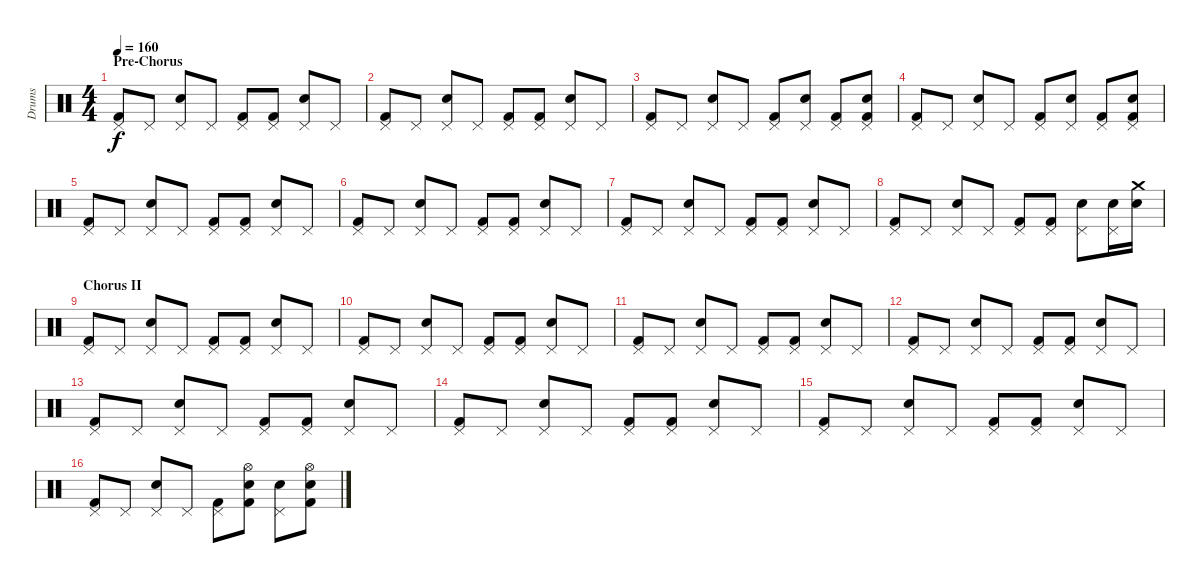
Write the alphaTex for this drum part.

\track ("Drums" "Drums") {instrument percussion}
\staff {score}
\articulation defaults
\ts (4 4)
\section ("" "Pre-Chorus")
\tempo 160
\clef neutral
\ks c
("Kick (hit) 2" "Pedal Hi-Hat (hit)").8{dy f} "Pedal Hi-Hat (hit)".8 ("Electric Snare (hit)" "Pedal Hi-Hat (hit)").8 "Pedal Hi-Hat (hit)".8 ("Kick (hit) 2" "Pedal Hi-Hat (hit)").8 ("Kick (hit) 2" "Pedal Hi-Hat (hit)").8 ("Electric Snare (hit)" "Pedal Hi-Hat (hit)").8 "Pedal Hi-Hat (hit)".8 |
("Kick (hit) 2" "Pedal Hi-Hat (hit)").8 "Pedal Hi-Hat (hit)".8 ("Electric Snare (hit)" "Pedal Hi-Hat (hit)").8 "Pedal Hi-Hat (hit)".8 ("Kick (hit) 2" "Pedal Hi-Hat (hit)").8 ("Kick (hit) 2" "Pedal Hi-Hat (hit)").8 ("Electric Snare (hit)" "Pedal Hi-Hat (hit)").8 "Pedal Hi-Hat (hit)".8 |
("Kick (hit) 2" "Pedal Hi-Hat (hit)").8 "Pedal Hi-Hat (hit)".8 ("Electric Snare (hit)" "Pedal Hi-Hat (hit)").8 "Pedal Hi-Hat (hit)".8 ("Kick (hit) 2" "Pedal Hi-Hat (hit)").8 ("Pedal Hi-Hat (hit)" "Electric Snare (hit)").8 ("Kick (hit) 2" "Pedal Hi-Hat (hit)").8 ("Kick (hit) 2" "Pedal Hi-Hat (hit)" "Electric Snare (hit)").8 |
("Kick (hit) 2" "Pedal Hi-Hat (hit)").8 "Pedal Hi-Hat (hit)".8 ("Electric Snare (hit)" "Pedal Hi-Hat (hit)").8 "Pedal Hi-Hat (hit)".8 ("Kick (hit) 2" "Pedal Hi-Hat (hit)").8 ("Pedal Hi-Hat (hit)" "Electric Snare (hit)").8 ("Kick (hit) 2" "Pedal Hi-Hat (hit)").8 ("Kick (hit) 2" "Pedal Hi-Hat (hit)" "Electric Snare (hit)").8 |
("Kick (hit) 2" "Pedal Hi-Hat (hit)").8 "Pedal Hi-Hat (hit)".8 ("Electric Snare (hit)" "Pedal Hi-Hat (hit)").8 "Pedal Hi-Hat (hit)".8 ("Kick (hit) 2" "Pedal Hi-Hat (hit)").8 ("Kick (hit) 2" "Pedal Hi-Hat (hit)").8 ("Electric Snare (hit)" "Pedal Hi-Hat (hit)").8 "Pedal Hi-Hat (hit)".8 |
("Kick (hit) 2" "Pedal Hi-Hat (hit)").8 "Pedal Hi-Hat (hit)".8 ("Electric Snare (hit)" "Pedal Hi-Hat (hit)").8 "Pedal Hi-Hat (hit)".8 ("Kick (hit) 2" "Pedal Hi-Hat (hit)").8 ("Kick (hit) 2" "Pedal Hi-Hat (hit)").8 ("Electric Snare (hit)" "Pedal Hi-Hat (hit)").8 "Pedal Hi-Hat (hit)".8 |
("Kick (hit) 2" "Pedal Hi-Hat (hit)").8 "Pedal Hi-Hat (hit)".8 ("Electric Snare (hit)" "Pedal Hi-Hat (hit)").8 "Pedal Hi-Hat (hit)".8 ("Kick (hit) 2" "Pedal Hi-Hat (hit)").8 ("Kick (hit) 2" "Pedal Hi-Hat (hit)").8 ("Electric Snare (hit)" "Pedal Hi-Hat (hit)").8 "Pedal Hi-Hat (hit)".8 |
("Kick (hit) 2" "Pedal Hi-Hat (hit)").8 "Pedal Hi-Hat (hit)".8 ("Electric Snare (hit)" "Pedal Hi-Hat (hit)").8 "Pedal Hi-Hat (hit)".8 ("Kick (hit) 2" "Pedal Hi-Hat (hit)").8 ("Kick (hit) 2" "Pedal Hi-Hat (hit)").8 ("Electric Snare (hit)" "Pedal Hi-Hat (hit)").8 ("Electric Snare (hit)" "Pedal Hi-Hat (hit)").16 ("Electric Snare (hit)" "Crash medium (hit)").16 |
\section ("" "Chorus II")
("Kick (hit) 2" "Pedal Hi-Hat (hit)").8 "Pedal Hi-Hat (hit)".8 ("Electric Snare (hit)" "Pedal Hi-Hat (hit)").8 "Pedal Hi-Hat (hit)".8 ("Kick (hit) 2" "Pedal Hi-Hat (hit)").8 ("Kick (hit) 2" "Pedal Hi-Hat (hit)").8 ("Electric Snare (hit)" "Pedal Hi-Hat (hit)").8 "Pedal Hi-Hat (hit)".8 |
("Kick (hit) 2" "Pedal Hi-Hat (hit)").8 "Pedal Hi-Hat (hit)".8 ("Electric Snare (hit)" "Pedal Hi-Hat (hit)").8 "Pedal Hi-Hat (hit)".8 ("Kick (hit) 2" "Pedal Hi-Hat (hit)").8 ("Kick (hit) 2" "Pedal Hi-Hat (hit)").8 ("Electric Snare (hit)" "Pedal Hi-Hat (hit)").8 "Pedal Hi-Hat (hit)".8 |
("Kick (hit) 2" "Pedal Hi-Hat (hit)").8 "Pedal Hi-Hat (hit)".8 ("Electric Snare (hit)" "Pedal Hi-Hat (hit)").8 "Pedal Hi-Hat (hit)".8 ("Kick (hit) 2" "Pedal Hi-Hat (hit)").8 ("Kick (hit) 2" "Pedal Hi-Hat (hit)").8 ("Electric Snare (hit)" "Pedal Hi-Hat (hit)").8 "Pedal Hi-Hat (hit)".8 |
("Kick (hit) 2" "Pedal Hi-Hat (hit)").8 "Pedal Hi-Hat (hit)".8 ("Electric Snare (hit)" "Pedal Hi-Hat (hit)").8 "Pedal Hi-Hat (hit)".8 ("Kick (hit) 2" "Pedal Hi-Hat (hit)").8 ("Kick (hit) 2" "Pedal Hi-Hat (hit)").8 ("Electric Snare (hit)" "Pedal Hi-Hat (hit)").8 "Pedal Hi-Hat (hit)".8 |
("Kick (hit) 2" "Pedal Hi-Hat (hit)").8 "Pedal Hi-Hat (hit)".8 ("Electric Snare (hit)" "Pedal Hi-Hat (hit)").8 "Pedal Hi-Hat (hit)".8 ("Kick (hit) 2" "Pedal Hi-Hat (hit)").8 ("Kick (hit) 2" "Pedal Hi-Hat (hit)").8 ("Electric Snare (hit)" "Pedal Hi-Hat (hit)").8 "Pedal Hi-Hat (hit)".8 |
("Kick (hit) 2" "Pedal Hi-Hat (hit)").8 "Pedal Hi-Hat (hit)".8 ("Electric Snare (hit)" "Pedal Hi-Hat (hit)").8 "Pedal Hi-Hat (hit)".8 ("Kick (hit) 2" "Pedal Hi-Hat (hit)").8 ("Kick (hit) 2" "Pedal Hi-Hat (hit)").8 ("Electric Snare (hit)" "Pedal Hi-Hat (hit)").8 "Pedal Hi-Hat (hit)".8 |
("Kick (hit) 2" "Pedal Hi-Hat (hit)").8 "Pedal Hi-Hat (hit)".8 ("Electric Snare (hit)" "Pedal Hi-Hat (hit)").8 "Pedal Hi-Hat (hit)".8 ("Kick (hit) 2" "Pedal Hi-Hat (hit)").8 ("Kick (hit) 2" "Pedal Hi-Hat (hit)").8 ("Electric Snare (hit)" "Pedal Hi-Hat (hit)").8 "Pedal Hi-Hat (hit)".8 |
("Kick (hit) 2" "Pedal Hi-Hat (hit)").8 "Pedal Hi-Hat (hit)".8 ("Electric Snare (hit)" "Pedal Hi-Hat (hit)").8 "Pedal Hi-Hat (hit)".8 ("Kick (hit) 2" "Pedal Hi-Hat (hit)").8 ("Kick (hit) 2" "Electric Snare (hit)" "Hi-Hat (open)").8 ("Electric Snare (hit)" "Pedal Hi-Hat (hit)").8 ("Kick (hit) 2" "Electric Snare (hit)" "Hi-Hat (open)").8
